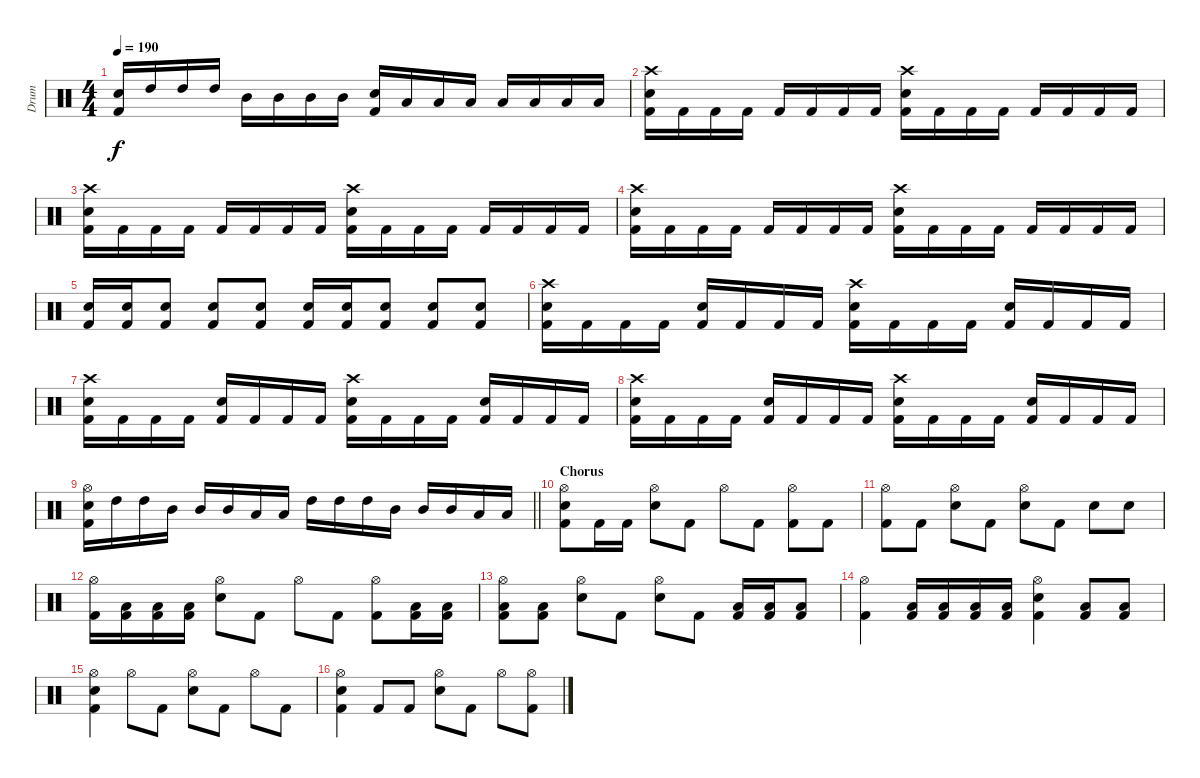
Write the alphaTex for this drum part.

\track ("Drum" "Drum") {instrument percussion}
\staff {score}
\articulation defaults
\ts (4 4)
\tempo 190
\clef neutral
\ks c
("Snare (hit) 2" "Kick (hit) 2").16{dy f} "High Tom (hit)".16 "High Tom (hit)".16 "High Tom (hit)".16 "Mid Tom (hit)".16 "Mid Tom (hit)".16 "Mid Tom (hit)".16 "Mid Tom (hit)".16 ("Snare (hit) 2" "Kick (hit) 2").16 "Low Tom (hit)".16 "Low Tom (hit)".16 "Low Tom (hit)".16 "Low Floor Tom (hit)".16 "Low Floor Tom (hit)".16 "Low Floor Tom (hit)".16 "Low Floor Tom (hit)".16 |
("Crash high (hit)" "Snare (hit) 2" "Kick (hit) 2").16 "Kick (hit) 2".16 "Kick (hit) 2".16 "Kick (hit) 2".16 "Kick (hit) 2".16 "Kick (hit) 2".16 "Kick (hit) 2".16 "Kick (hit) 2".16 ("Crash high (hit)" "Snare (hit) 2" "Kick (hit) 2").16 "Kick (hit) 2".16 "Kick (hit) 2".16 "Kick (hit) 2".16 "Kick (hit) 2".16 "Kick (hit) 2".16 "Kick (hit) 2".16 "Kick (hit) 2".16 |
("Crash high (hit)" "Snare (hit) 2" "Kick (hit) 2").16 "Kick (hit) 2".16 "Kick (hit) 2".16 "Kick (hit) 2".16 "Kick (hit) 2".16 "Kick (hit) 2".16 "Kick (hit) 2".16 "Kick (hit) 2".16 ("Crash high (hit)" "Snare (hit) 2" "Kick (hit) 2").16 "Kick (hit) 2".16 "Kick (hit) 2".16 "Kick (hit) 2".16 "Kick (hit) 2".16 "Kick (hit) 2".16 "Kick (hit) 2".16 "Kick (hit) 2".16 |
("Crash high (hit)" "Snare (hit) 2" "Kick (hit) 2").16 "Kick (hit) 2".16 "Kick (hit) 2".16 "Kick (hit) 2".16 "Kick (hit) 2".16 "Kick (hit) 2".16 "Kick (hit) 2".16 "Kick (hit) 2".16 ("Crash high (hit)" "Snare (hit) 2" "Kick (hit) 2").16 "Kick (hit) 2".16 "Kick (hit) 2".16 "Kick (hit) 2".16 "Kick (hit) 2".16 "Kick (hit) 2".16 "Kick (hit) 2".16 "Kick (hit) 2".16 |
("Snare (hit) 2" "Kick (hit) 2").16 ("Snare (hit) 2" "Kick (hit) 2").16 ("Snare (hit) 2" "Kick (hit) 2").8 ("Snare (hit) 2" "Kick (hit) 2").8 ("Snare (hit) 2" "Kick (hit) 2").8 ("Snare (hit) 2" "Kick (hit) 2").16 ("Snare (hit) 2" "Kick (hit) 2").16 ("Snare (hit) 2" "Kick (hit) 2").8 ("Snare (hit) 2" "Kick (hit) 2").8 ("Snare (hit) 2" "Kick (hit) 2").8 |
("Crash high (hit)" "Snare (hit) 2" "Kick (hit) 2").16 "Kick (hit) 2".16 "Kick (hit) 2".16 "Kick (hit) 2".16 ("Snare (hit) 2" "Kick (hit) 2").16 "Kick (hit) 2".16 "Kick (hit) 2".16 "Kick (hit) 2".16 ("Crash high (hit)" "Snare (hit) 2" "Kick (hit) 2").16 "Kick (hit) 2".16 "Kick (hit) 2".16 "Kick (hit) 2".16 ("Snare (hit) 2" "Kick (hit) 2").16 "Kick (hit) 2".16 "Kick (hit) 2".16 "Kick (hit) 2".16 |
("Crash high (hit)" "Snare (hit) 2" "Kick (hit) 2").16 "Kick (hit) 2".16 "Kick (hit) 2".16 "Kick (hit) 2".16 ("Snare (hit) 2" "Kick (hit) 2").16 "Kick (hit) 2".16 "Kick (hit) 2".16 "Kick (hit) 2".16 ("Crash high (hit)" "Snare (hit) 2" "Kick (hit) 2").16 "Kick (hit) 2".16 "Kick (hit) 2".16 "Kick (hit) 2".16 ("Snare (hit) 2" "Kick (hit) 2").16 "Kick (hit) 2".16 "Kick (hit) 2".16 "Kick (hit) 2".16 |
("Crash high (hit)" "Snare (hit) 2" "Kick (hit) 2").16 "Kick (hit) 2".16 "Kick (hit) 2".16 "Kick (hit) 2".16 ("Snare (hit) 2" "Kick (hit) 2").16 "Kick (hit) 2".16 "Kick (hit) 2".16 "Kick (hit) 2".16 ("Crash high (hit)" "Snare (hit) 2" "Kick (hit) 2").16 "Kick (hit) 2".16 "Kick (hit) 2".16 "Kick (hit) 2".16 ("Snare (hit) 2" "Kick (hit) 2").16 "Kick (hit) 2".16 "Kick (hit) 2".16 "Kick (hit) 2".16 |
\barLineRight lightlight
("Hi-Hat (open)" "Snare (hit) 2" "Kick (hit) 2").16 "High Tom (hit)".16 "High Tom (hit)".16 "Mid Tom (hit)".16 "Mid Tom (hit)".16 "Mid Tom (hit)".16 "Low Tom (hit)".16 "Low Tom (hit)".16 "High Tom (hit)".16 "High Tom (hit)".16 "High Tom (hit)".16 "Mid Tom (hit)".16 "Mid Tom (hit)".16 "Mid Tom (hit)".16 "Low Tom (hit)".16 "Low Tom (hit)".16 |
\section ("" "Chorus")
("Hi-Hat (open)" "Snare (hit) 2" "Kick (hit) 2").8 "Kick (hit) 2".16 "Kick (hit) 2".16 ("Hi-Hat (open)" "Snare (hit) 2").8 "Kick (hit) 2".8 "Hi-Hat (open)".8 "Kick (hit) 2".8 ("Hi-Hat (open)" "Kick (hit) 2").8 "Kick (hit) 2".8 |
("Hi-Hat (open)" "Kick (hit) 2").8 "Kick (hit) 2".8 ("Hi-Hat (open)" "Snare (hit) 2").8 "Kick (hit) 2".8 ("Hi-Hat (open)" "Snare (hit) 2").8 "Kick (hit) 2".8 "Snare (hit) 2".8 "Snare (hit) 2".8 |
("Hi-Hat (open)" "Kick (hit) 2").16 ("Low Floor Tom (hit)" "Kick (hit) 2").16 ("Low Floor Tom (hit)" "Kick (hit) 2").16 ("Low Floor Tom (hit)" "Kick (hit) 2").16 ("Hi-Hat (open)" "Snare (hit) 2").8 "Kick (hit) 2".8 "Hi-Hat (open)".8 "Kick (hit) 2".8 ("Hi-Hat (open)" "Kick (hit) 2").8 ("Low Floor Tom (hit)" "Kick (hit) 2").16 ("Low Floor Tom (hit)" "Kick (hit) 2").16 |
("Hi-Hat (open)" "Low Floor Tom (hit)" "Kick (hit) 2").8 ("Low Floor Tom (hit)" "Kick (hit) 2").8 ("Hi-Hat (open)" "Snare (hit) 2").8 "Kick (hit) 2".8 ("Hi-Hat (open)" "Snare (hit) 2").8 "Kick (hit) 2".8 ("Low Floor Tom (hit)" "Kick (hit) 2").16 ("Low Floor Tom (hit)" "Kick (hit) 2").16 ("Low Floor Tom (hit)" "Kick (hit) 2").8 |
("Hi-Hat (open)" "Kick (hit) 2").4 ("Low Floor Tom (hit)" "Kick (hit) 2").16 ("Low Floor Tom (hit)" "Kick (hit) 2").16 ("Low Floor Tom (hit)" "Kick (hit) 2").16 ("Low Floor Tom (hit)" "Kick (hit) 2").16 ("Hi-Hat (open)" "Snare (hit) 2" "Kick (hit) 2").4 ("Low Tom (hit)" "Kick (hit) 2").8 ("Low Floor Tom (hit)" "Kick (hit) 2").8 |
("Hi-Hat (open)" "Snare (hit) 2" "Kick (hit) 2").4 "Hi-Hat (open)".8 "Kick (hit) 2".8 ("Hi-Hat (open)" "Snare (hit) 2").8 "Kick (hit) 2".8 "Hi-Hat (open)".8 "Kick (hit) 2".8 |
("Hi-Hat (open)" "Snare (hit) 2" "Kick (hit) 2").4 "Kick (hit) 2".8 "Kick (hit) 2".8 ("Hi-Hat (open)" "Snare (hit) 2").8 "Kick (hit) 2".8 "Hi-Hat (open)".8 ("Hi-Hat (open)" "Kick (hit) 2").8
